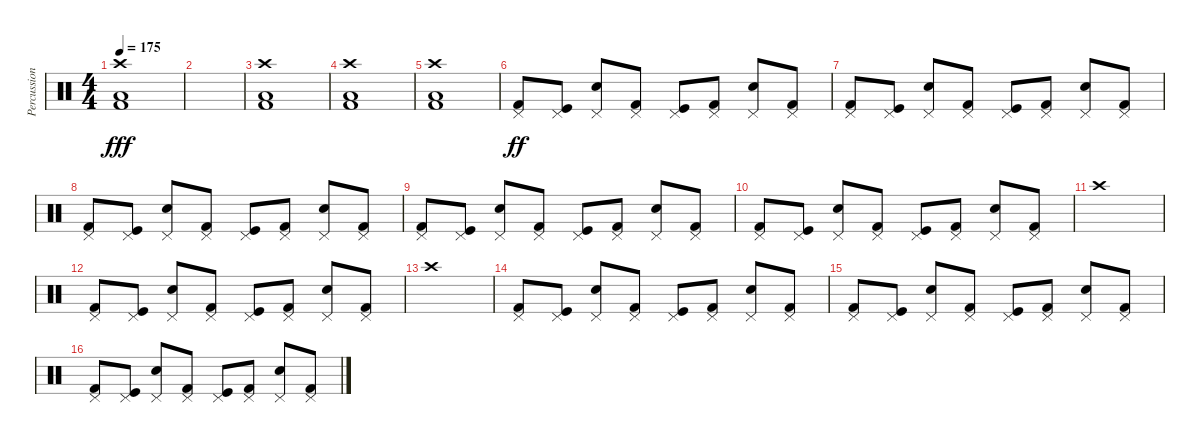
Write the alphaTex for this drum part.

\track ("Percussion (Karlo Žuliæ)" "Percussion") {instrument percussion}
\staff {score}
\articulation defaults
\ts (4 4)
\tempo 175
\clef neutral
\ks c
("Low Floor Tom (hit)" "Kick (hit) 2" "Crash high (hit)").1{dy fff} |
|
("Low Floor Tom (hit)" "Kick (hit) 2" "Crash high (hit)").1 |
("Low Floor Tom (hit)" "Kick (hit) 2" "Crash high (hit)").1 |
("Low Floor Tom (hit)" "Kick (hit) 2" "Crash high (hit)").1 |
("Pedal Hi-Hat (hit)" "Kick (hit) 2").8{dy ff} ("Pedal Hi-Hat (hit)" "Kick (hit)").8 ("Pedal Hi-Hat (hit)" "Snare (hit) 2").8 ("Pedal Hi-Hat (hit)" "Kick (hit) 2").8 ("Pedal Hi-Hat (hit)" "Kick (hit)").8 ("Pedal Hi-Hat (hit)" "Kick (hit) 2").8 ("Pedal Hi-Hat (hit)" "Snare (hit) 2").8 ("Pedal Hi-Hat (hit)" "Kick (hit) 2").8 |
("Pedal Hi-Hat (hit)" "Kick (hit) 2").8 ("Pedal Hi-Hat (hit)" "Kick (hit)").8 ("Pedal Hi-Hat (hit)" "Snare (hit) 2").8 ("Pedal Hi-Hat (hit)" "Kick (hit) 2").8 ("Pedal Hi-Hat (hit)" "Kick (hit)").8 ("Pedal Hi-Hat (hit)" "Kick (hit) 2").8 ("Pedal Hi-Hat (hit)" "Snare (hit) 2").8 ("Pedal Hi-Hat (hit)" "Kick (hit) 2").8 |
("Pedal Hi-Hat (hit)" "Kick (hit) 2").8 ("Pedal Hi-Hat (hit)" "Kick (hit)").8 ("Pedal Hi-Hat (hit)" "Snare (hit) 2").8 ("Pedal Hi-Hat (hit)" "Kick (hit) 2").8 ("Pedal Hi-Hat (hit)" "Kick (hit)").8 ("Pedal Hi-Hat (hit)" "Kick (hit) 2").8 ("Pedal Hi-Hat (hit)" "Snare (hit) 2").8 ("Pedal Hi-Hat (hit)" "Kick (hit) 2").8 |
("Pedal Hi-Hat (hit)" "Kick (hit) 2").8 ("Pedal Hi-Hat (hit)" "Kick (hit)").8 ("Pedal Hi-Hat (hit)" "Snare (hit) 2").8 ("Pedal Hi-Hat (hit)" "Kick (hit) 2").8 ("Pedal Hi-Hat (hit)" "Kick (hit)").8 ("Pedal Hi-Hat (hit)" "Kick (hit) 2").8 ("Pedal Hi-Hat (hit)" "Snare (hit) 2").8 ("Pedal Hi-Hat (hit)" "Kick (hit) 2").8 |
("Pedal Hi-Hat (hit)" "Kick (hit) 2").8 ("Pedal Hi-Hat (hit)" "Kick (hit)").8 ("Pedal Hi-Hat (hit)" "Snare (hit) 2").8 ("Pedal Hi-Hat (hit)" "Kick (hit) 2").8 ("Pedal Hi-Hat (hit)" "Kick (hit)").8 ("Pedal Hi-Hat (hit)" "Kick (hit) 2").8 ("Pedal Hi-Hat (hit)" "Snare (hit) 2").8 ("Pedal Hi-Hat (hit)" "Kick (hit) 2").8 |
"Crash high (hit)".1 |
("Pedal Hi-Hat (hit)" "Kick (hit) 2").8 ("Pedal Hi-Hat (hit)" "Kick (hit)").8 ("Pedal Hi-Hat (hit)" "Snare (hit) 2").8 ("Pedal Hi-Hat (hit)" "Kick (hit) 2").8 ("Pedal Hi-Hat (hit)" "Kick (hit)").8 ("Pedal Hi-Hat (hit)" "Kick (hit) 2").8 ("Pedal Hi-Hat (hit)" "Snare (hit) 2").8 ("Pedal Hi-Hat (hit)" "Kick (hit) 2").8 |
"Crash high (hit)".1 |
("Pedal Hi-Hat (hit)" "Kick (hit) 2").8 ("Pedal Hi-Hat (hit)" "Kick (hit)").8 ("Pedal Hi-Hat (hit)" "Snare (hit) 2").8 ("Pedal Hi-Hat (hit)" "Kick (hit) 2").8 ("Pedal Hi-Hat (hit)" "Kick (hit)").8 ("Pedal Hi-Hat (hit)" "Kick (hit) 2").8 ("Pedal Hi-Hat (hit)" "Snare (hit) 2").8 ("Pedal Hi-Hat (hit)" "Kick (hit) 2").8 |
("Pedal Hi-Hat (hit)" "Kick (hit) 2").8 ("Pedal Hi-Hat (hit)" "Kick (hit)").8 ("Pedal Hi-Hat (hit)" "Snare (hit) 2").8 ("Pedal Hi-Hat (hit)" "Kick (hit) 2").8 ("Pedal Hi-Hat (hit)" "Kick (hit)").8 ("Pedal Hi-Hat (hit)" "Kick (hit) 2").8 ("Pedal Hi-Hat (hit)" "Snare (hit) 2").8 ("Pedal Hi-Hat (hit)" "Kick (hit) 2").8 |
("Pedal Hi-Hat (hit)" "Kick (hit) 2").8 ("Pedal Hi-Hat (hit)" "Kick (hit)").8 ("Pedal Hi-Hat (hit)" "Snare (hit) 2").8 ("Pedal Hi-Hat (hit)" "Kick (hit) 2").8 ("Pedal Hi-Hat (hit)" "Kick (hit)").8 ("Pedal Hi-Hat (hit)" "Kick (hit) 2").8 ("Pedal Hi-Hat (hit)" "Snare (hit) 2").8 ("Pedal Hi-Hat (hit)" "Kick (hit) 2").8
